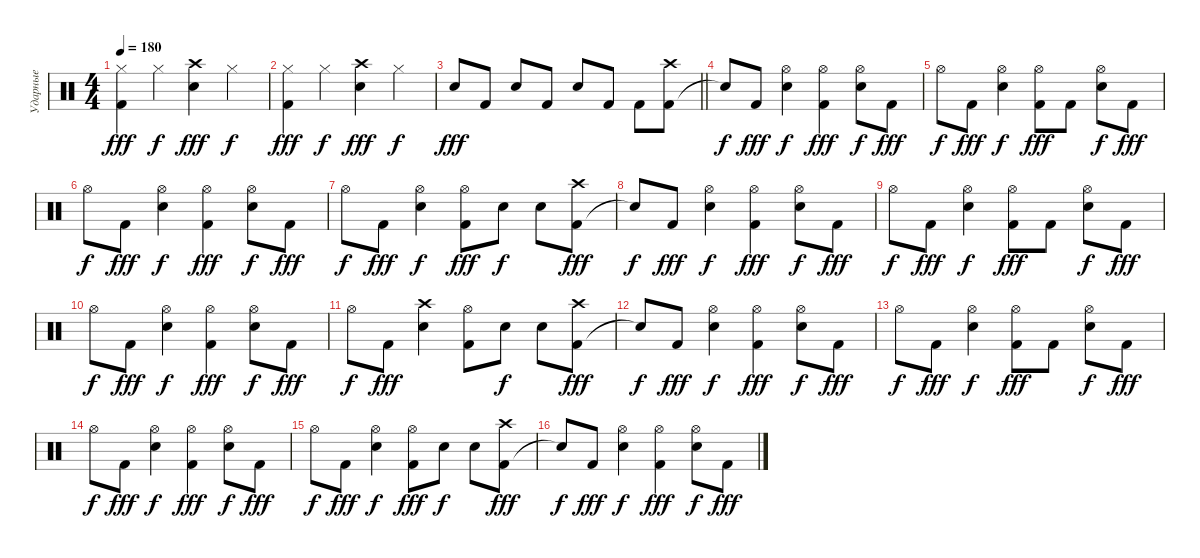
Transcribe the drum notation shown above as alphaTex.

\track ("Ударные" "Ударные") {instrument percussion}
\staff {score}
\articulation defaults
\ts (4 4)
\tempo 180
\clef neutral
\ks c
("Kick (hit) 2" "Hi-Hat (closed)").4{dy fff} "Hi-Hat (closed)".4{dy f} ("Snare (hit) 2" "Crash high (hit)").4{dy fff} "Hi-Hat (closed)".4{dy f} |
("Kick (hit) 2" "Hi-Hat (closed)").4{dy fff} "Hi-Hat (closed)".4{dy f} ("Snare (hit) 2" "Crash high (hit)").4{dy fff} "Hi-Hat (closed)".4{dy f} |
\barLineRight lightlight "Snare (hit) 2".8{dy fff} "Kick (hit) 2".8 "Snare (hit) 2".8 "Kick (hit) 2".8 "Snare (hit) 2".8 "Kick (hit) 2".8 "Kick (hit) 2".8
("Kick (hit) 2" "Crash high (hit)").8 |
"Snare (hit)"{t}.8{dy f} "Kick (hit) 2".8{dy fff} ("Snare (hit) 2" "Hi-Hat (open)").4{dy f} ("Kick (hit) 2" "Hi-Hat (open)").4{dy fff} ("Snare (hit) 2" "Hi-Hat (open)").8{dy f} "Kick (hit) 2".8{dy fff} |
"Hi-Hat (open)".8{dy f} "Kick (hit) 2".8{dy fff} ("Snare (hit) 2" "Hi-Hat (open)").4{dy f} ("Kick (hit) 2" "Hi-Hat (open)").8{dy fff} "Kick (hit) 2".8 ("Snare (hit) 2" "Hi-Hat (open)").8{dy f} "Kick (hit) 2".8{dy fff} |
"Hi-Hat (open)".8{dy f} "Kick (hit) 2".8{dy fff} ("Snare (hit) 2" "Hi-Hat (open)").4{dy f} ("Kick (hit) 2" "Hi-Hat (open)").4{dy fff} ("Snare (hit) 2" "Hi-Hat (open)").8{dy f} "Kick (hit) 2".8{dy fff} |
"Hi-Hat (open)".8{dy f} "Kick (hit) 2".8{dy fff} ("Snare (hit) 2" "Hi-Hat (open)").4{dy f} ("Kick (hit) 2" "Hi-Hat (open)").8{dy fff} "Snare (hit) 2".8{dy f} "Snare (hit) 2".8 ("Kick (hit) 2" "Crash high (hit)").8{dy fff} |
"Snare (hit)"{t}.8{dy f} "Kick (hit) 2".8{dy fff} ("Snare (hit) 2" "Hi-Hat (open)").4{dy f} ("Kick (hit) 2" "Hi-Hat (open)").4{dy fff} ("Snare (hit) 2" "Hi-Hat (open)").8{dy f} "Kick (hit) 2".8{dy fff} |
"Hi-Hat (open)".8{dy f} "Kick (hit) 2".8{dy fff} ("Snare (hit) 2" "Hi-Hat (open)").4{dy f} ("Kick (hit) 2" "Hi-Hat (open)").8{dy fff} "Kick (hit) 2".8 ("Snare (hit) 2" "Hi-Hat (open)").8{dy f} "Kick (hit) 2".8{dy fff} |
"Hi-Hat (open)".8{dy f} "Kick (hit) 2".8{dy fff} ("Snare (hit) 2" "Hi-Hat (open)").4{dy f} ("Kick (hit) 2" "Hi-Hat (open)").4{dy fff} ("Snare (hit) 2" "Hi-Hat (open)").8{dy f} "Kick (hit) 2".8{dy fff} |
"Hi-Hat (open)".8{dy f} "Kick (hit) 2".8{dy fff} ("Snare (hit) 2" "Crash high (hit)").4 ("Kick (hit) 2" "Hi-Hat (open)").8 "Snare (hit) 2".8{dy f} "Snare (hit) 2".8 ("Kick (hit) 2" "Crash high (hit)").8{dy fff} |
"Snare (hit)"{t}.8{dy f} "Kick (hit) 2".8{dy fff} ("Snare (hit) 2" "Hi-Hat (open)").4{dy f} ("Kick (hit) 2" "Hi-Hat (open)").4{dy fff} ("Snare (hit) 2" "Hi-Hat (open)").8{dy f} "Kick (hit) 2".8{dy fff} |
"Hi-Hat (open)".8{dy f} "Kick (hit) 2".8{dy fff} ("Snare (hit) 2" "Hi-Hat (open)").4{dy f} ("Kick (hit) 2" "Hi-Hat (open)").8{dy fff} "Kick (hit) 2".8 ("Snare (hit) 2" "Hi-Hat (open)").8{dy f} "Kick (hit) 2".8{dy fff} |
"Hi-Hat (open)".8{dy f} "Kick (hit) 2".8{dy fff} ("Snare (hit) 2" "Hi-Hat (open)").4{dy f} ("Kick (hit) 2" "Hi-Hat (open)").4{dy fff} ("Snare (hit) 2" "Hi-Hat (open)").8{dy f} "Kick (hit) 2".8{dy fff} |
"Hi-Hat (open)".8{dy f} "Kick (hit) 2".8{dy fff} ("Snare (hit) 2" "Hi-Hat (open)").4{dy f} ("Kick (hit) 2" "Hi-Hat (open)").8{dy fff} "Snare (hit) 2".8{dy f} "Snare (hit) 2".8 ("Kick (hit) 2" "Crash high (hit)").8{dy fff} |
"Snare (hit)"{t}.8{dy f} "Kick (hit) 2".8{dy fff} ("Snare (hit) 2" "Hi-Hat (open)").4{dy f} ("Kick (hit) 2" "Hi-Hat (open)").4{dy fff} ("Snare (hit) 2" "Hi-Hat (open)").8{dy f} "Kick (hit) 2".8{dy fff}
